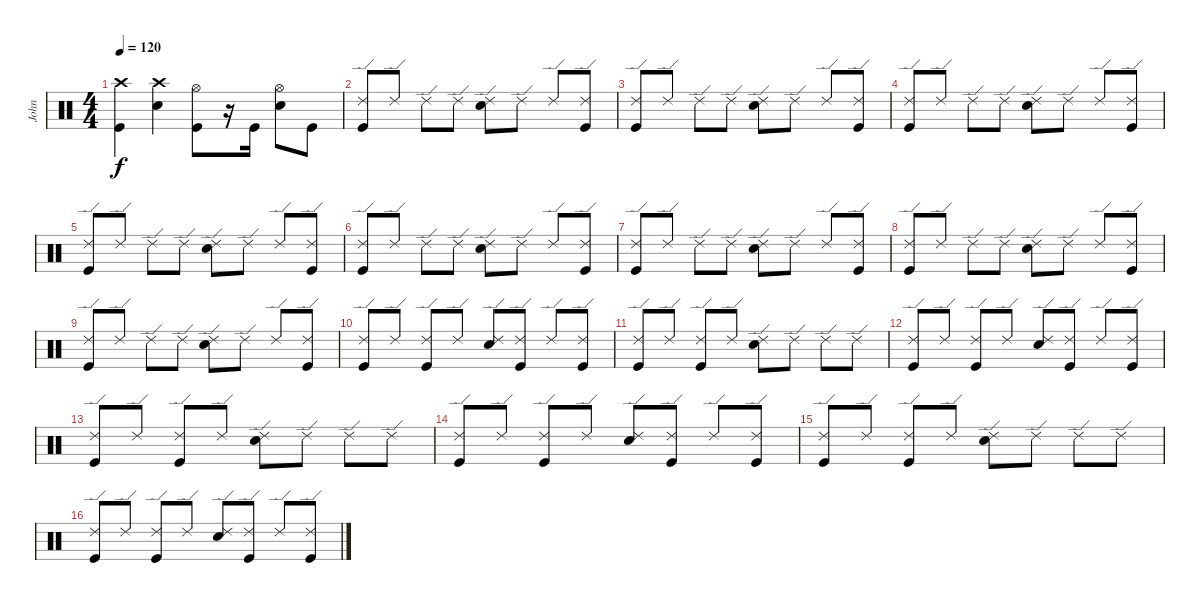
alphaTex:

\track ("John" "John") {instrument percussion}
\staff {score}
\articulation defaults
\ts (4 4)
\tempo 120
\clef neutral
\ks c
("Crash high (hit)" "Kick (hit)").4{dy f} ("Crash high (hit)" "Snare (hit) 2").4 ("Hi-Hat (open)" "Kick (hit)").8 r.16 "Kick (hit)".16 ("Hi-Hat (open)" "Snare (hit) 2").8 "Kick (hit)".8 |
("Ride (edge) 2" "Kick (hit)").8 "Ride (edge) 2".8 "Ride (edge) 2".8 "Ride (edge) 2".8 ("Ride (edge) 2" "Snare (hit) 2").8 "Ride (edge) 2".8 "Ride (edge) 2".8 ("Ride (edge) 2" "Kick (hit)").8 |
("Ride (edge) 2" "Kick (hit)").8 "Ride (edge) 2".8 "Ride (edge) 2".8 "Ride (edge) 2".8 ("Ride (edge) 2" "Snare (hit) 2").8 "Ride (edge) 2".8 "Ride (edge) 2".8 ("Ride (edge) 2" "Kick (hit)").8 |
("Ride (edge) 2" "Kick (hit)").8 "Ride (edge) 2".8 "Ride (edge) 2".8 "Ride (edge) 2".8 ("Ride (edge) 2" "Snare (hit) 2").8 "Ride (edge) 2".8 "Ride (edge) 2".8 ("Ride (edge) 2" "Kick (hit)").8 |
("Ride (edge) 2" "Kick (hit)").8 "Ride (edge) 2".8 "Ride (edge) 2".8 "Ride (edge) 2".8 ("Ride (edge) 2" "Snare (hit) 2").8 "Ride (edge) 2".8 "Ride (edge) 2".8 ("Ride (edge) 2" "Kick (hit)").8 |
("Ride (edge) 2" "Kick (hit)").8 "Ride (edge) 2".8 "Ride (edge) 2".8 "Ride (edge) 2".8 ("Ride (edge) 2" "Snare (hit) 2").8 "Ride (edge) 2".8 "Ride (edge) 2".8 ("Ride (edge) 2" "Kick (hit)").8 |
("Ride (edge) 2" "Kick (hit)").8 "Ride (edge) 2".8 "Ride (edge) 2".8 "Ride (edge) 2".8 ("Ride (edge) 2" "Snare (hit) 2").8 "Ride (edge) 2".8 "Ride (edge) 2".8 ("Ride (edge) 2" "Kick (hit)").8 |
("Ride (edge) 2" "Kick (hit)").8 "Ride (edge) 2".8 "Ride (edge) 2".8 "Ride (edge) 2".8 ("Ride (edge) 2" "Snare (hit) 2").8 "Ride (edge) 2".8 "Ride (edge) 2".8 ("Ride (edge) 2" "Kick (hit)").8 |
("Ride (edge) 2" "Kick (hit)").8 "Ride (edge) 2".8 "Ride (edge) 2".8 "Ride (edge) 2".8 ("Ride (edge) 2" "Snare (hit) 2").8 "Ride (edge) 2".8 "Ride (edge) 2".8 ("Ride (edge) 2" "Kick (hit)").8 |
("Ride (edge) 2" "Kick (hit)").8 "Ride (edge) 2".8 ("Ride (edge) 2" "Kick (hit)").8 "Ride (edge) 2".8 ("Ride (edge) 2" "Snare (hit) 2").8 ("Ride (edge) 2" "Kick (hit)").8 "Ride (edge) 2".8 ("Ride (edge) 2" "Kick (hit)").8 |
("Ride (edge) 2" "Kick (hit)").8 "Ride (edge) 2".8 ("Ride (edge) 2" "Kick (hit)").8 "Ride (edge) 2".8 ("Ride (edge) 2" "Snare (hit) 2").8 "Ride (edge) 2".8 "Ride (edge) 2".8 "Ride (edge) 2".8 |
("Ride (edge) 2" "Kick (hit)").8 "Ride (edge) 2".8 ("Ride (edge) 2" "Kick (hit)").8 "Ride (edge) 2".8 ("Ride (edge) 2" "Snare (hit) 2").8 ("Ride (edge) 2" "Kick (hit)").8 "Ride (edge) 2".8 ("Ride (edge) 2" "Kick (hit)").8 |
("Ride (edge) 2" "Kick (hit)").8 "Ride (edge) 2".8 ("Ride (edge) 2" "Kick (hit)").8 "Ride (edge) 2".8 ("Ride (edge) 2" "Snare (hit) 2").8 "Ride (edge) 2".8 "Ride (edge) 2".8 "Ride (edge) 2".8 |
("Ride (edge) 2" "Kick (hit)").8 "Ride (edge) 2".8 ("Ride (edge) 2" "Kick (hit)").8 "Ride (edge) 2".8 ("Ride (edge) 2" "Snare (hit) 2").8 ("Ride (edge) 2" "Kick (hit)").8 "Ride (edge) 2".8 ("Ride (edge) 2" "Kick (hit)").8 |
("Ride (edge) 2" "Kick (hit)").8 "Ride (edge) 2".8 ("Ride (edge) 2" "Kick (hit)").8 "Ride (edge) 2".8 ("Ride (edge) 2" "Snare (hit) 2").8 "Ride (edge) 2".8 "Ride (edge) 2".8 "Ride (edge) 2".8 |
("Ride (edge) 2" "Kick (hit)").8 "Ride (edge) 2".8 ("Ride (edge) 2" "Kick (hit)").8 "Ride (edge) 2".8 ("Ride (edge) 2" "Snare (hit) 2").8 ("Ride (edge) 2" "Kick (hit)").8 "Ride (edge) 2".8 ("Ride (edge) 2" "Kick (hit)").8
